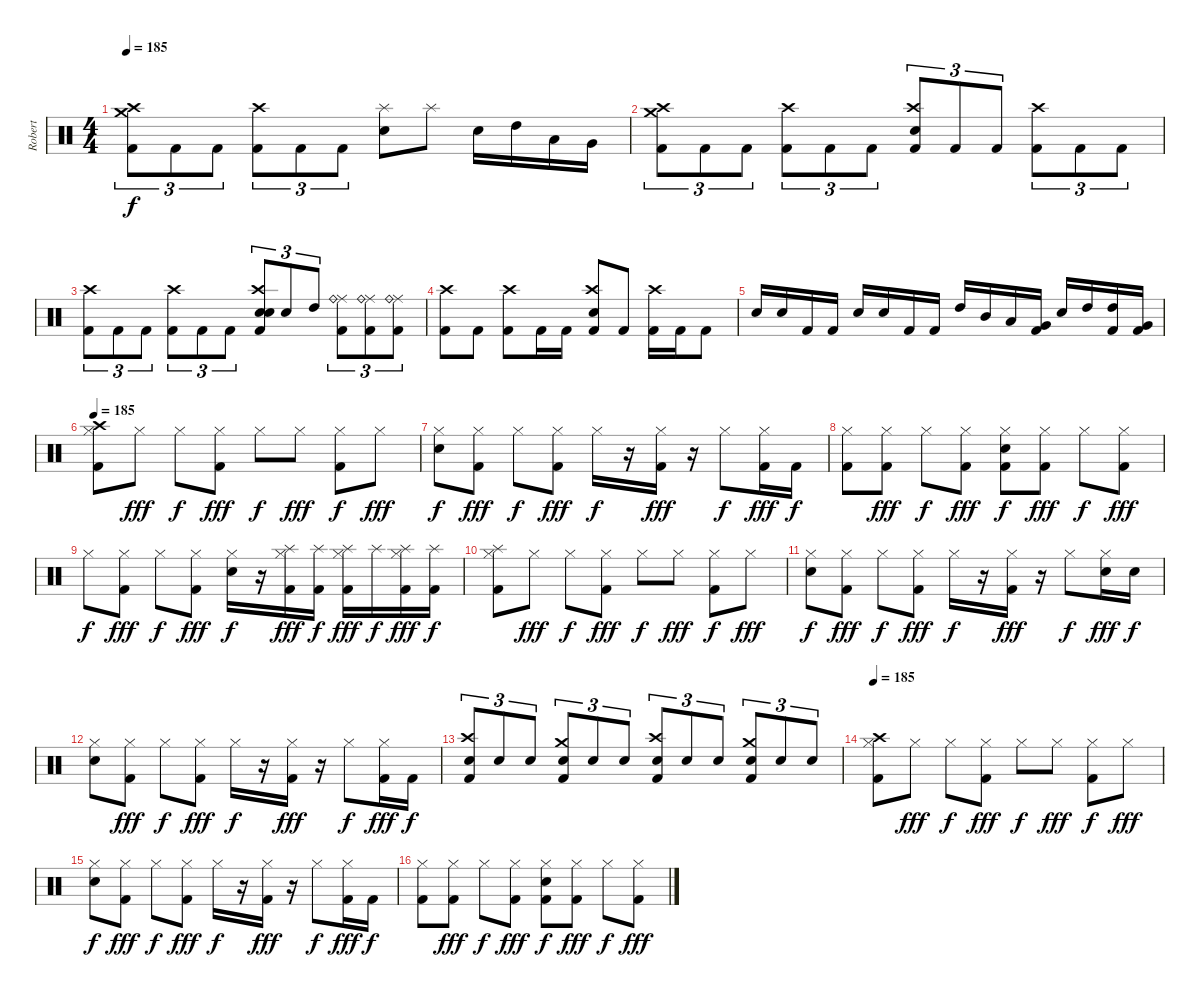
\track ("Robert" "Robert") {instrument percussion}
\staff {score}
\articulation defaults
\ts (4 4)
\tempo 185
\clef neutral
\ks c
("Kick (hit) 2" "Crash medium (hit)" "Crash high (hit)").8{tu (3 2) dy f} "Kick (hit) 2".8{tu (3 2)} "Kick (hit) 2".8{tu (3 2)} ("Kick (hit) 2" "Crash high (hit)").8{tu (3 2)} "Kick (hit) 2".8{tu (3 2)} "Kick (hit) 2".8{tu (3 2)} ("Splash (hit)" "Electric Snare (hit)").8 "Splash (hit)".8 "Electric Snare (hit)".16 "High Tom (hit)".16 "Low Tom (hit)".16 "Very Low Tom (hit)".16 |
("Kick (hit) 2" "Crash medium (hit)" "Crash high (hit)").8{tu (3 2)} "Kick (hit) 2".8{tu (3 2)} "Kick (hit) 2".8{tu (3 2)} ("Kick (hit) 2" "Crash high (hit)").8{tu (3 2)} "Kick (hit) 2".8{tu (3 2)} "Kick (hit) 2".8{tu (3 2)} ("Kick (hit) 2" "Electric Snare (hit)" "Crash high (hit)").8{tu (3 2)} "Kick (hit) 2".8{tu (3 2)} "Kick (hit) 2".8{tu (3 2)} ("Kick (hit) 2" "Crash high (hit)").8{tu (3 2)} "Kick (hit) 2".8{tu (3 2)} "Kick (hit) 2".8{tu (3 2)} |
("Kick (hit) 2" "Crash high (hit)").8{tu (3 2)} "Kick (hit) 2".8{tu (3 2)} "Kick (hit) 2".8{tu (3 2)} ("Kick (hit) 2" "Crash high (hit)").8{tu (3 2)} "Kick (hit) 2".8{tu (3 2)} "Kick (hit) 2".8{tu (3 2)} ("Kick (hit) 2" "Electric Snare (hit)" "Electric Snare (hit)" "Crash high (hit)").8{tu (3 2)} "Electric Snare (hit)".8{tu (3 2)} "High Tom (hit)".8{tu (3 2)} ("Ride (middle)" "Kick (hit) 2" "Ride (bell)").8{tu (3 2)} ("Ride (middle)" "Kick (hit) 2" "Ride (bell)").8{tu (3 2)} ("Ride (middle)" "Kick (hit) 2" "Ride (bell)").8{tu (3 2)} |
("Crash high (hit)" "Kick (hit) 2").8 "Kick (hit) 2".8 ("Crash high (hit)" "Kick (hit) 2").8 "Kick (hit) 2".16 "Kick (hit) 2".16 ("Crash high (hit)" "Kick (hit) 2" "Electric Snare (hit)").8 "Kick (hit) 2".8 ("Crash high (hit)" "Kick (hit) 2").16 "Kick (hit) 2".16 "Kick (hit) 2".8 |
"Electric Snare (hit)".16 "Electric Snare (hit)".16 "Kick (hit) 2".16 "Kick (hit) 2".16 "Electric Snare (hit)".16 "Electric Snare (hit)".16 "Kick (hit) 2".16 "Kick (hit) 2".16 "High Tom (hit)".16 "Mid Tom (hit)".16 "Low Tom (hit)".16 ("Very Low Tom (hit)" "Kick (hit) 2").16 "Electric Snare (hit)".16 "High Tom (hit)".16 ("High Tom (hit)" "Kick (hit) 2").16 ("Very Low Tom (hit)" "Kick (hit) 2").16 |
\tempo 185
("Crash high (hit)" "Hi-Hat (closed)" "Kick (hit) 2").8 "Hi-Hat (closed)".8{dy fff} "Hi-Hat (closed)".8{dy f} ("Hi-Hat (closed)" "Kick (hit) 2").8{dy fff} "Hi-Hat (closed)".8{dy f} "Hi-Hat (closed)".8{dy fff} ("Hi-Hat (closed)" "Kick (hit) 2").8{dy f} "Hi-Hat (closed)".8{dy fff} |
("Hi-Hat (closed)" "Electric Snare (hit)").8{dy f} ("Kick (hit) 2" "Hi-Hat (closed)").8{dy fff} "Hi-Hat (closed)".8{dy f} ("Hi-Hat (closed)" "Kick (hit) 2").8{dy fff} "Hi-Hat (closed)".16{dy f} r.16 ("Hi-Hat (closed)" "Kick (hit) 2").16{dy fff} r.16 "Hi-Hat (closed)".8{dy f} ("Hi-Hat (closed)" "Kick (hit) 2").16{dy fff} "Kick (hit) 2".16{dy f} |
("Hi-Hat (closed)" "Kick (hit) 2").8 ("Hi-Hat (closed)" "Kick (hit) 2").8{dy fff} "Hi-Hat (closed)".8{dy f} ("Hi-Hat (closed)" "Kick (hit) 2").8{dy fff} ("Hi-Hat (closed)" "Electric Snare (hit)" "Kick (hit) 2").8{dy f} ("Hi-Hat (closed)" "Kick (hit) 2").8{dy fff} "Hi-Hat (closed)".8{dy f} ("Hi-Hat (closed)" "Kick (hit) 2").8{dy fff} |
"Hi-Hat (closed)".8{dy f} ("Kick (hit) 2" "Hi-Hat (closed)").8{dy fff} "Hi-Hat (closed)".8{dy f} ("Hi-Hat (closed)" "Kick (hit) 2").8{dy fff} ("Hi-Hat (closed)" "Electric Snare (hit)").16{dy f} r.16 ("Hi-Hat (closed)" "Kick (hit) 2" "Splash (hit)").16{dy fff} ("Kick (hit) 2" "Splash (hit)").16{dy f} ("Hi-Hat (closed)" "Kick (hit) 2" "Splash (hit)").16{dy fff} "Splash (hit)".16{dy f} ("Hi-Hat (closed)" "Kick (hit) 2" "Splash (hit)").16{dy fff} ("Kick (hit) 2" "Splash (hit)").16{dy f} |
("Hi-Hat (closed)" "Kick (hit) 2" "Splash (hit)").8 "Hi-Hat (closed)".8{dy fff} "Hi-Hat (closed)".8{dy f} ("Hi-Hat (closed)" "Kick (hit) 2").8{dy fff} "Hi-Hat (closed)".8{dy f} "Hi-Hat (closed)".8{dy fff} ("Hi-Hat (closed)" "Kick (hit) 2").8{dy f} "Hi-Hat (closed)".8{dy fff} |
("Hi-Hat (closed)" "Electric Snare (hit)").8{dy f} ("Kick (hit) 2" "Hi-Hat (closed)").8{dy fff} "Hi-Hat (closed)".8{dy f} ("Hi-Hat (closed)" "Kick (hit) 2").8{dy fff} "Hi-Hat (closed)".16{dy f} r.16 ("Hi-Hat (closed)" "Kick (hit) 2").16{dy fff} r.16 "Hi-Hat (closed)".8{dy f} ("Hi-Hat (closed)" "Electric Snare (hit)").16{dy fff} "Electric Snare (hit)".16{dy f} |
("Hi-Hat (closed)" "Electric Snare (hit)").8 ("Kick (hit) 2" "Hi-Hat (closed)").8{dy fff} "Hi-Hat (closed)".8{dy f} ("Hi-Hat (closed)" "Kick (hit) 2").8{dy fff} "Hi-Hat (closed)".16{dy f} r.16 ("Hi-Hat (closed)" "Kick (hit) 2").16{dy fff} r.16 "Hi-Hat (closed)".8{dy f} ("Hi-Hat (closed)" "Kick (hit) 2").16{dy fff} "Kick (hit) 2".16{dy f} |
("Crash high (hit)" "Electric Snare (hit)" "Kick (hit) 2").8{tu (3 2)} "Electric Snare (hit)".8{tu (3 2)} "Electric Snare (hit)".8{tu (3 2)} ("Crash medium (hit)" "Electric Snare (hit)" "Kick (hit) 2").8{tu (3 2)} "Electric Snare (hit)".8{tu (3 2)} "Electric Snare (hit)".8{tu (3 2)} ("Crash high (hit)" "Electric Snare (hit)" "Kick (hit) 2").8{tu (3 2)} "Electric Snare (hit)".8{tu (3 2)} "Electric Snare (hit)".8{tu (3 2)} ("Crash medium (hit)" "Electric Snare (hit)" "Kick (hit) 2").8{tu (3 2)} "Electric Snare (hit)".8{tu (3 2)} "Electric Snare (hit)".8{tu (3 2)} |
\tempo 185
("Crash high (hit)" "Hi-Hat (closed)" "Kick (hit) 2").8 "Hi-Hat (closed)".8{dy fff} "Hi-Hat (closed)".8{dy f} ("Hi-Hat (closed)" "Kick (hit) 2").8{dy fff} "Hi-Hat (closed)".8{dy f} "Hi-Hat (closed)".8{dy fff} ("Hi-Hat (closed)" "Kick (hit) 2").8{dy f} "Hi-Hat (closed)".8{dy fff} |
("Hi-Hat (closed)" "Electric Snare (hit)").8{dy f} ("Kick (hit) 2" "Hi-Hat (closed)").8{dy fff} "Hi-Hat (closed)".8{dy f} ("Hi-Hat (closed)" "Kick (hit) 2").8{dy fff} "Hi-Hat (closed)".16{dy f} r.16 ("Hi-Hat (closed)" "Kick (hit) 2").16{dy fff} r.16 "Hi-Hat (closed)".8{dy f} ("Hi-Hat (closed)" "Kick (hit) 2").16{dy fff} "Kick (hit) 2".16{dy f} |
("Hi-Hat (closed)" "Kick (hit) 2").8 ("Hi-Hat (closed)" "Kick (hit) 2").8{dy fff} "Hi-Hat (closed)".8{dy f} ("Hi-Hat (closed)" "Kick (hit) 2").8{dy fff} ("Hi-Hat (closed)" "Electric Snare (hit)" "Kick (hit) 2").8{dy f} ("Hi-Hat (closed)" "Kick (hit) 2").8{dy fff} "Hi-Hat (closed)".8{dy f} ("Hi-Hat (closed)" "Kick (hit) 2").8{dy fff}
